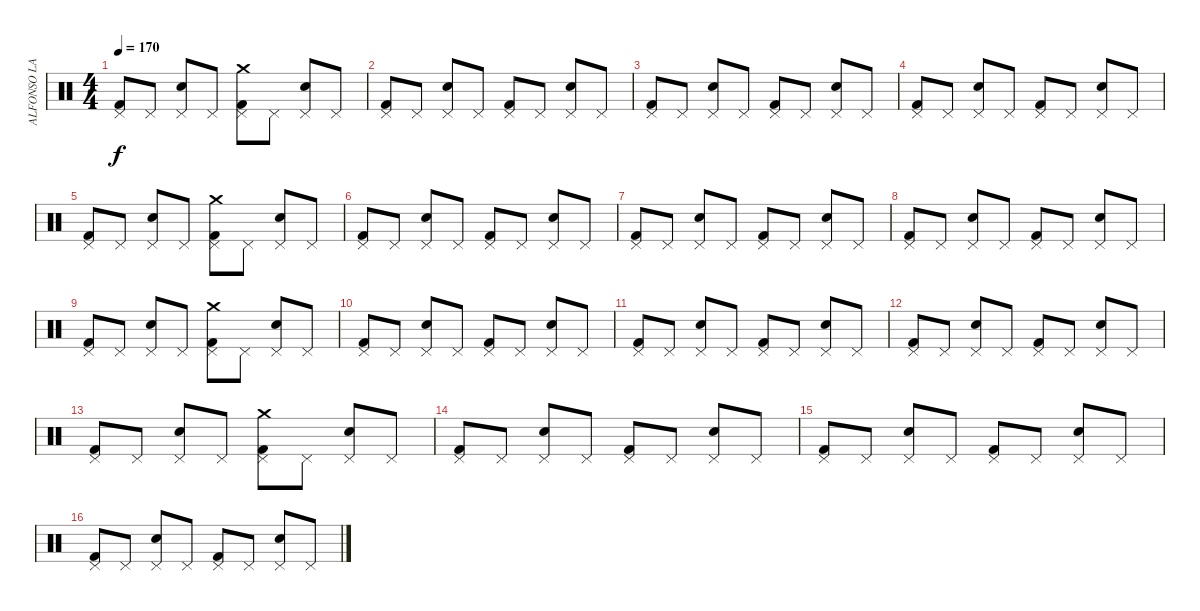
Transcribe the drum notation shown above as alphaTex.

\track ("ALFONSO LANTERO" "ALFONSO LA") {instrument percussion}
\staff {score}
\articulation defaults
\ts (4 4)
\tempo 170
\clef neutral
\ks c
("Kick (hit) 2" "Pedal Hi-Hat (hit)").8{dy f} "Pedal Hi-Hat (hit)".8 ("Electric Snare (hit)" "Pedal Hi-Hat (hit)").8 "Pedal Hi-Hat (hit)".8 ("Kick (hit) 2" "Pedal Hi-Hat (hit)" "Crash medium (hit)").8 "Pedal Hi-Hat (hit)".8 ("Electric Snare (hit)" "Pedal Hi-Hat (hit)").8 "Pedal Hi-Hat (hit)".8 |
("Kick (hit) 2" "Pedal Hi-Hat (hit)").8 "Pedal Hi-Hat (hit)".8 ("Electric Snare (hit)" "Pedal Hi-Hat (hit)").8 "Pedal Hi-Hat (hit)".8 ("Kick (hit) 2" "Pedal Hi-Hat (hit)").8 "Pedal Hi-Hat (hit)".8 ("Electric Snare (hit)" "Pedal Hi-Hat (hit)").8 "Pedal Hi-Hat (hit)".8 |
("Kick (hit) 2" "Pedal Hi-Hat (hit)").8 "Pedal Hi-Hat (hit)".8 ("Electric Snare (hit)" "Pedal Hi-Hat (hit)").8 "Pedal Hi-Hat (hit)".8 ("Kick (hit) 2" "Pedal Hi-Hat (hit)").8 "Pedal Hi-Hat (hit)".8 ("Electric Snare (hit)" "Pedal Hi-Hat (hit)").8 "Pedal Hi-Hat (hit)".8 |
("Kick (hit) 2" "Pedal Hi-Hat (hit)").8 "Pedal Hi-Hat (hit)".8 ("Electric Snare (hit)" "Pedal Hi-Hat (hit)").8 "Pedal Hi-Hat (hit)".8 ("Kick (hit) 2" "Pedal Hi-Hat (hit)").8 "Pedal Hi-Hat (hit)".8 ("Electric Snare (hit)" "Pedal Hi-Hat (hit)").8 "Pedal Hi-Hat (hit)".8 |
("Kick (hit) 2" "Pedal Hi-Hat (hit)").8 "Pedal Hi-Hat (hit)".8 ("Electric Snare (hit)" "Pedal Hi-Hat (hit)").8 "Pedal Hi-Hat (hit)".8 ("Kick (hit) 2" "Pedal Hi-Hat (hit)" "Crash medium (hit)").8 "Pedal Hi-Hat (hit)".8 ("Electric Snare (hit)" "Pedal Hi-Hat (hit)").8 "Pedal Hi-Hat (hit)".8 |
("Kick (hit) 2" "Pedal Hi-Hat (hit)").8 "Pedal Hi-Hat (hit)".8 ("Electric Snare (hit)" "Pedal Hi-Hat (hit)").8 "Pedal Hi-Hat (hit)".8 ("Kick (hit) 2" "Pedal Hi-Hat (hit)").8 "Pedal Hi-Hat (hit)".8 ("Electric Snare (hit)" "Pedal Hi-Hat (hit)").8 "Pedal Hi-Hat (hit)".8 |
("Kick (hit) 2" "Pedal Hi-Hat (hit)").8 "Pedal Hi-Hat (hit)".8 ("Electric Snare (hit)" "Pedal Hi-Hat (hit)").8 "Pedal Hi-Hat (hit)".8 ("Kick (hit) 2" "Pedal Hi-Hat (hit)").8 "Pedal Hi-Hat (hit)".8 ("Electric Snare (hit)" "Pedal Hi-Hat (hit)").8 "Pedal Hi-Hat (hit)".8 |
("Kick (hit) 2" "Pedal Hi-Hat (hit)").8 "Pedal Hi-Hat (hit)".8 ("Electric Snare (hit)" "Pedal Hi-Hat (hit)").8 "Pedal Hi-Hat (hit)".8 ("Kick (hit) 2" "Pedal Hi-Hat (hit)").8 "Pedal Hi-Hat (hit)".8 ("Electric Snare (hit)" "Pedal Hi-Hat (hit)").8 "Pedal Hi-Hat (hit)".8 |
("Kick (hit) 2" "Pedal Hi-Hat (hit)").8 "Pedal Hi-Hat (hit)".8 ("Electric Snare (hit)" "Pedal Hi-Hat (hit)").8 "Pedal Hi-Hat (hit)".8 ("Kick (hit) 2" "Pedal Hi-Hat (hit)" "Crash medium (hit)").8 "Pedal Hi-Hat (hit)".8 ("Electric Snare (hit)" "Pedal Hi-Hat (hit)").8 "Pedal Hi-Hat (hit)".8 |
("Kick (hit) 2" "Pedal Hi-Hat (hit)").8 "Pedal Hi-Hat (hit)".8 ("Electric Snare (hit)" "Pedal Hi-Hat (hit)").8 "Pedal Hi-Hat (hit)".8 ("Kick (hit) 2" "Pedal Hi-Hat (hit)").8 "Pedal Hi-Hat (hit)".8 ("Electric Snare (hit)" "Pedal Hi-Hat (hit)").8 "Pedal Hi-Hat (hit)".8 |
("Kick (hit) 2" "Pedal Hi-Hat (hit)").8 "Pedal Hi-Hat (hit)".8 ("Electric Snare (hit)" "Pedal Hi-Hat (hit)").8 "Pedal Hi-Hat (hit)".8 ("Kick (hit) 2" "Pedal Hi-Hat (hit)").8 "Pedal Hi-Hat (hit)".8 ("Electric Snare (hit)" "Pedal Hi-Hat (hit)").8 "Pedal Hi-Hat (hit)".8 |
("Kick (hit) 2" "Pedal Hi-Hat (hit)").8 "Pedal Hi-Hat (hit)".8 ("Electric Snare (hit)" "Pedal Hi-Hat (hit)").8 "Pedal Hi-Hat (hit)".8 ("Kick (hit) 2" "Pedal Hi-Hat (hit)").8 "Pedal Hi-Hat (hit)".8 ("Electric Snare (hit)" "Pedal Hi-Hat (hit)").8 "Pedal Hi-Hat (hit)".8 |
("Kick (hit) 2" "Pedal Hi-Hat (hit)").8 "Pedal Hi-Hat (hit)".8 ("Electric Snare (hit)" "Pedal Hi-Hat (hit)").8 "Pedal Hi-Hat (hit)".8 ("Kick (hit) 2" "Pedal Hi-Hat (hit)" "Crash medium (hit)").8 "Pedal Hi-Hat (hit)".8 ("Electric Snare (hit)" "Pedal Hi-Hat (hit)").8 "Pedal Hi-Hat (hit)".8 |
("Kick (hit) 2" "Pedal Hi-Hat (hit)").8 "Pedal Hi-Hat (hit)".8 ("Electric Snare (hit)" "Pedal Hi-Hat (hit)").8 "Pedal Hi-Hat (hit)".8 ("Kick (hit) 2" "Pedal Hi-Hat (hit)").8 "Pedal Hi-Hat (hit)".8 ("Electric Snare (hit)" "Pedal Hi-Hat (hit)").8 "Pedal Hi-Hat (hit)".8 |
("Kick (hit) 2" "Pedal Hi-Hat (hit)").8 "Pedal Hi-Hat (hit)".8 ("Electric Snare (hit)" "Pedal Hi-Hat (hit)").8 "Pedal Hi-Hat (hit)".8 ("Kick (hit) 2" "Pedal Hi-Hat (hit)").8 "Pedal Hi-Hat (hit)".8 ("Electric Snare (hit)" "Pedal Hi-Hat (hit)").8 "Pedal Hi-Hat (hit)".8 |
("Kick (hit) 2" "Pedal Hi-Hat (hit)").8 "Pedal Hi-Hat (hit)".8 ("Electric Snare (hit)" "Pedal Hi-Hat (hit)").8 "Pedal Hi-Hat (hit)".8 ("Kick (hit) 2" "Pedal Hi-Hat (hit)").8 "Pedal Hi-Hat (hit)".8 ("Electric Snare (hit)" "Pedal Hi-Hat (hit)").8 "Pedal Hi-Hat (hit)".8
